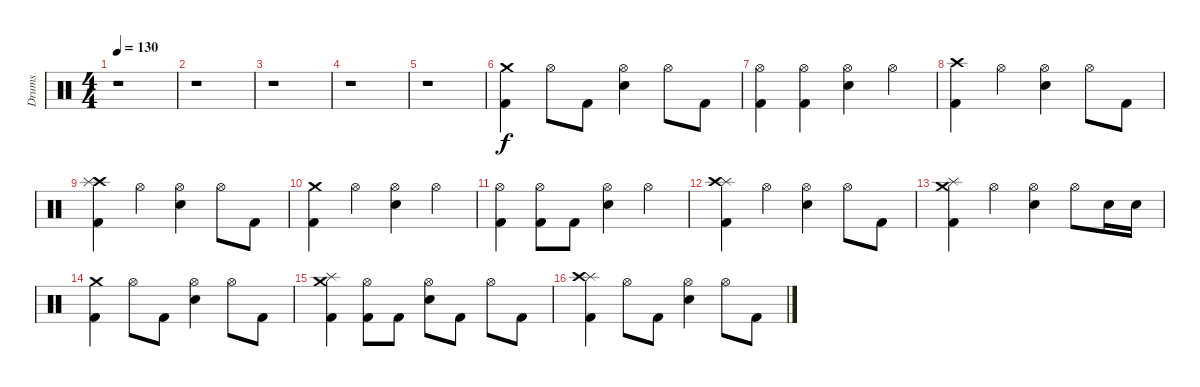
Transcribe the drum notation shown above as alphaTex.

\track ("Drums" "Drums") {instrument percussion}
\staff {score}
\articulation defaults
\ts (4 4)
\tempo 130
\clef neutral
\ks c
r.1{dy mp} |
r.1 |
r.1 |
r.1 |
r.1 |
("Crash medium (hit)" "Kick (hit) 2").4{dy f} "Hi-Hat (open)".8 "Kick (hit) 2".8 ("Hi-Hat (open)" "Snare (hit) 2").4 "Hi-Hat (open)".8 "Kick (hit) 2".8 |
("Hi-Hat (open)" "Kick (hit) 2").4 ("Hi-Hat (open)" "Kick (hit) 2").4 ("Hi-Hat (open)" "Snare (hit) 2").4 "Hi-Hat (open)".4 |
("Crash high (hit)" "Kick (hit) 2").4 "Hi-Hat (open)".4 ("Hi-Hat (open)" "Snare (hit) 2").4 "Hi-Hat (open)".8 "Kick (hit) 2".8 |
("Crash high (hit)" "Splash (hit)" "Kick (hit) 2").4 "Hi-Hat (open)".4 ("Hi-Hat (open)" "Snare (hit) 2").4 "Hi-Hat (open)".8 "Kick (hit) 2".8 |
("Crash medium (hit)" "Kick (hit) 2").4 "Hi-Hat (open)".4 ("Hi-Hat (open)" "Snare (hit) 2").4 "Hi-Hat (open)".4 |
("Hi-Hat (open)" "Kick (hit) 2").4 ("Hi-Hat (open)" "Kick (hit) 2").8 "Kick (hit) 2".8 ("Hi-Hat (open)" "Snare (hit) 2").4 "Hi-Hat (open)".4 |
("Splash (hit)" "Crash high (hit)" "Kick (hit) 2").4 "Hi-Hat (open)".4 ("Hi-Hat (open)" "Snare (hit) 2").4 "Hi-Hat (open)".8 "Kick (hit) 2".8 |
("Crash medium (hit)" "Splash (hit)" "Kick (hit) 2").4 "Hi-Hat (open)".4 ("Hi-Hat (open)" "Snare (hit) 2").4 "Hi-Hat (open)".8 "Snare (hit) 2".16 "Snare (hit) 2".16 |
("Crash medium (hit)" "Kick (hit) 2").4 "Hi-Hat (open)".8 "Kick (hit) 2".8 ("Hi-Hat (open)" "Snare (hit) 2").4 "Hi-Hat (open)".8 "Kick (hit) 2".8 |
("Splash (hit)" "Crash medium (hit)" "Kick (hit) 2").4 ("Hi-Hat (open)" "Kick (hit) 2").8 "Kick (hit) 2".8 ("Hi-Hat (open)" "Snare (hit) 2").8 "Kick (hit) 2".8 "Hi-Hat (open)".8 "Kick (hit) 2".8 |
("Splash (hit)" "Crash high (hit)" "Kick (hit) 2").4 "Hi-Hat (open)".8 "Kick (hit) 2".8 ("Hi-Hat (open)" "Snare (hit) 2").4 "Hi-Hat (open)".8 "Kick (hit) 2".8
